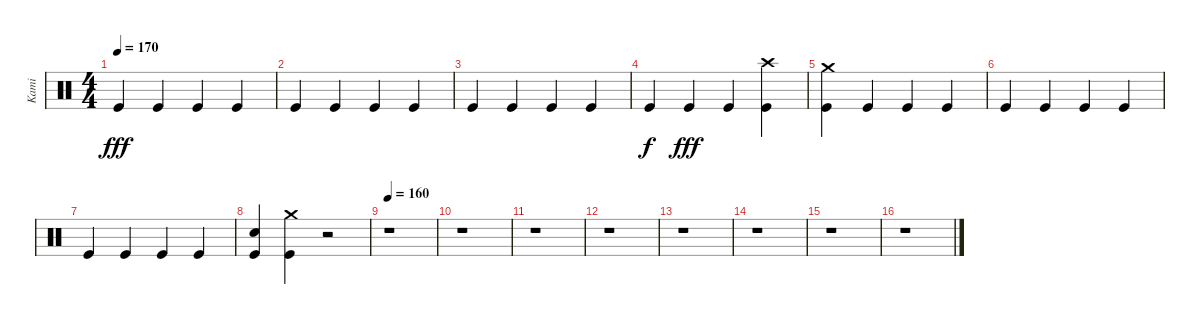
\track ("Kami" "Kami") {instrument percussion}
\staff {score}
\articulation defaults
\ts (4 4)
\tempo 170
\clef neutral
\ks c "Kick (hit)".4{dy fff} "Kick (hit)".4 "Kick (hit)".4 "Kick (hit)".4
|
"Kick (hit)".4 "Kick (hit)".4 "Kick (hit)".4 "Kick (hit)".4 |
"Kick (hit)".4 "Kick (hit)".4 "Kick (hit)".4 "Kick (hit)".4 |
"Kick (hit)".4{dy f} "Kick (hit)".4{dy fff} "Kick (hit)".4 ("Kick (hit)" "Crash high (hit)").4 |
("Crash medium (hit)" "Kick (hit)").4 "Kick (hit)".4 "Kick (hit)".4 "Kick (hit)".4 |
"Kick (hit)".4 "Kick (hit)".4 "Kick (hit)".4 "Kick (hit)".4 |
"Kick (hit)".4 "Kick (hit)".4 "Kick (hit)".4 "Kick (hit)".4 |
("Kick (hit)" "Snare (hit) 2").4 ("Kick (hit)" "Crash medium (hit)").4 r.2 |
\tempo 160
r.1 |
r.1 |
r.1 |
r.1 |
r.1 |
r.1 |
r.1 |
r.1
